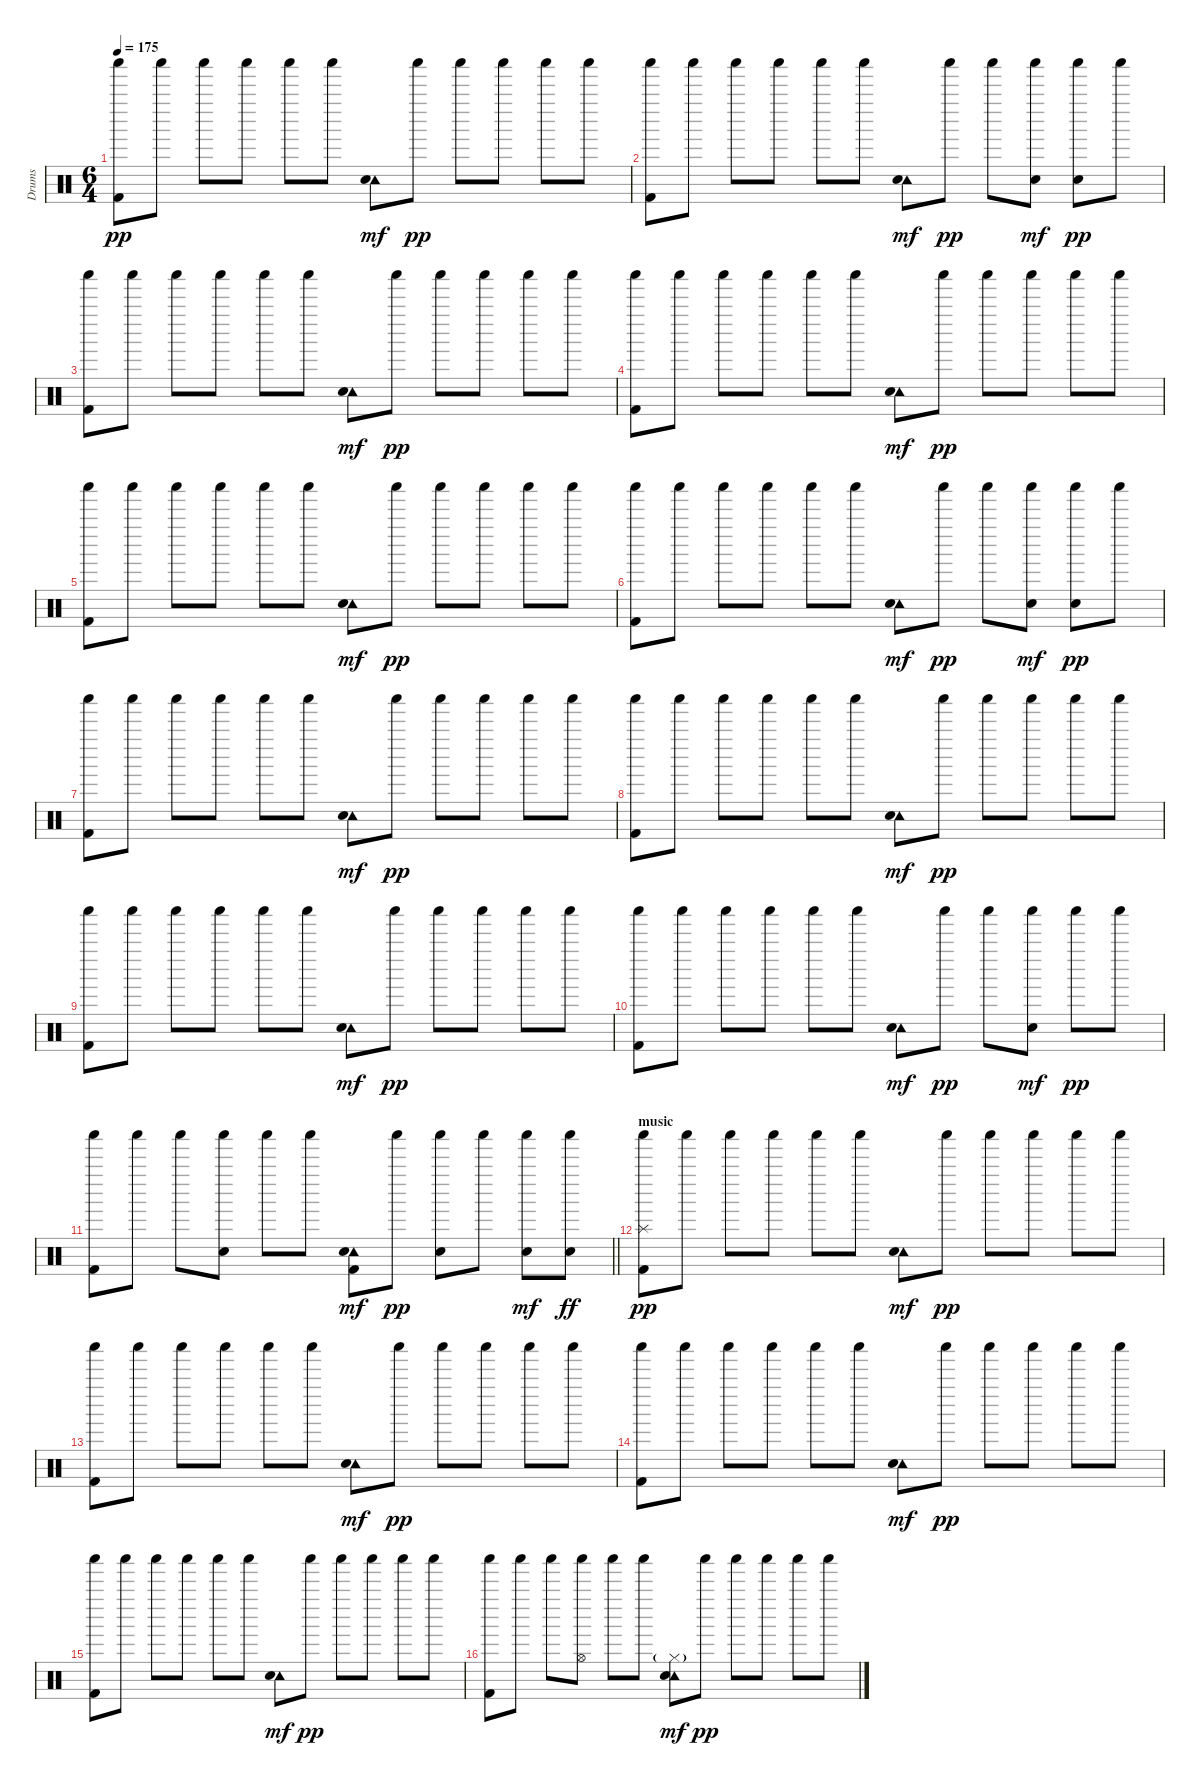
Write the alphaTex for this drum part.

\track ("Drums" "Drums") {instrument percussion}
\staff {score}
\articulation defaults
\ts (6 4)
\tempo 175
\clef neutral
\ks c
("Shaker (hit)" "Kick (hit) 2").8{dy pp} "Shaker (hit)".8 "Shaker (hit)".8 "Shaker (hit)".8 "Shaker (hit)".8 "Shaker (hit)".8 ("Tambourine (hit)" "Snare (hit) 2").8{dy mf} "Shaker (hit)".8{dy pp} "Shaker (hit)".8 "Shaker (hit)".8 "Shaker (hit)".8 "Shaker (hit)".8 |
("Shaker (hit)" "Kick (hit) 2").8 "Shaker (hit)".8 "Shaker (hit)".8 "Shaker (hit)".8 "Shaker (hit)".8 "Shaker (hit)".8 ("Tambourine (hit)" "Snare (hit) 2").8{dy mf} "Shaker (hit)".8{dy pp} "Shaker (hit)".8 ("Shaker (hit)" "Snare (hit) 2").8{dy mf} ("Shaker (hit)" "Snare (hit) 2").8{dy pp} "Shaker (hit)".8 |
("Shaker (hit)" "Kick (hit) 2").8 "Shaker (hit)".8 "Shaker (hit)".8 "Shaker (hit)".8 "Shaker (hit)".8 "Shaker (hit)".8 ("Tambourine (hit)" "Snare (hit) 2").8{dy mf} "Shaker (hit)".8{dy pp} "Shaker (hit)".8 "Shaker (hit)".8 "Shaker (hit)".8 "Shaker (hit)".8 |
("Shaker (hit)" "Kick (hit) 2").8 "Shaker (hit)".8 "Shaker (hit)".8 "Shaker (hit)".8 "Shaker (hit)".8 "Shaker (hit)".8 ("Tambourine (hit)" "Snare (hit) 2").8{dy mf} "Shaker (hit)".8{dy pp} "Shaker (hit)".8 "Shaker (hit)".8 "Shaker (hit)".8 "Shaker (hit)".8 |
("Shaker (hit)" "Kick (hit) 2").8 "Shaker (hit)".8 "Shaker (hit)".8 "Shaker (hit)".8 "Shaker (hit)".8 "Shaker (hit)".8 ("Tambourine (hit)" "Snare (hit) 2").8{dy mf} "Shaker (hit)".8{dy pp} "Shaker (hit)".8 "Shaker (hit)".8 "Shaker (hit)".8 "Shaker (hit)".8 |
("Shaker (hit)" "Kick (hit) 2").8 "Shaker (hit)".8 "Shaker (hit)".8 "Shaker (hit)".8 "Shaker (hit)".8 "Shaker (hit)".8 ("Tambourine (hit)" "Snare (hit) 2").8{dy mf} "Shaker (hit)".8{dy pp} "Shaker (hit)".8 ("Shaker (hit)" "Snare (hit) 2").8{dy mf} ("Shaker (hit)" "Snare (hit) 2").8{dy pp} "Shaker (hit)".8 |
("Shaker (hit)" "Kick (hit) 2").8 "Shaker (hit)".8 "Shaker (hit)".8 "Shaker (hit)".8 "Shaker (hit)".8 "Shaker (hit)".8 ("Tambourine (hit)" "Snare (hit) 2").8{dy mf} "Shaker (hit)".8{dy pp} "Shaker (hit)".8 "Shaker (hit)".8 "Shaker (hit)".8 "Shaker (hit)".8 |
("Shaker (hit)" "Kick (hit) 2").8 "Shaker (hit)".8 "Shaker (hit)".8 "Shaker (hit)".8 "Shaker (hit)".8 "Shaker (hit)".8 ("Tambourine (hit)" "Snare (hit) 2").8{dy mf} "Shaker (hit)".8{dy pp} "Shaker (hit)".8 "Shaker (hit)".8 "Shaker (hit)".8 "Shaker (hit)".8 |
("Shaker (hit)" "Kick (hit) 2").8 "Shaker (hit)".8 "Shaker (hit)".8 "Shaker (hit)".8 "Shaker (hit)".8 "Shaker (hit)".8 ("Tambourine (hit)" "Snare (hit) 2").8{dy mf} "Shaker (hit)".8{dy pp} "Shaker (hit)".8 "Shaker (hit)".8 "Shaker (hit)".8 "Shaker (hit)".8 |
("Shaker (hit)" "Kick (hit) 2").8 "Shaker (hit)".8 "Shaker (hit)".8 "Shaker (hit)".8 "Shaker (hit)".8 "Shaker (hit)".8 ("Tambourine (hit)" "Snare (hit) 2").8{dy mf} "Shaker (hit)".8{dy pp} "Shaker (hit)".8 ("Shaker (hit)" "Snare (hit) 2").8{dy mf} "Shaker (hit)".8{dy pp} "Shaker (hit)".8 |
\barLineRight lightlight
("Shaker (hit)" "Kick (hit) 2").8 "Shaker (hit)".8 "Shaker (hit)".8 ("Shaker (hit)" "Snare (hit) 2").8 "Shaker (hit)".8 "Shaker (hit)".8 ("Tambourine (hit)" "Snare (hit) 2" "Kick (hit) 2").8{dy mf} "Shaker (hit)".8{dy pp} ("Shaker (hit)" "Snare (hit) 2").8 "Shaker (hit)".8 ("Shaker (hit)" "Snare (hit) 2").8{dy mf} ("Shaker (hit)" "Snare (hit) 2").8{dy ff} |
\section ("" "music")
("Splash (hit)" "Shaker (hit)" "Kick (hit) 2").8{dy pp} "Shaker (hit)".8 "Shaker (hit)".8 "Shaker (hit)".8 "Shaker (hit)".8 "Shaker (hit)".8 ("Tambourine (hit)" "Snare (hit) 2").8{dy mf} "Shaker (hit)".8{dy pp} "Shaker (hit)".8 "Shaker (hit)".8 "Shaker (hit)".8 "Shaker (hit)".8 |
("Shaker (hit)" "Kick (hit) 2").8 "Shaker (hit)".8 "Shaker (hit)".8 "Shaker (hit)".8 "Shaker (hit)".8 "Shaker (hit)".8 ("Tambourine (hit)" "Snare (hit) 2").8{dy mf} "Shaker (hit)".8{dy pp} "Shaker (hit)".8 "Shaker (hit)".8 "Shaker (hit)".8 "Shaker (hit)".8 |
("Shaker (hit)" "Kick (hit) 2").8 "Shaker (hit)".8 "Shaker (hit)".8 "Shaker (hit)".8 "Shaker (hit)".8 "Shaker (hit)".8 ("Tambourine (hit)" "Snare (hit) 2").8{dy mf} "Shaker (hit)".8{dy pp} "Shaker (hit)".8 "Shaker (hit)".8 "Shaker (hit)".8 "Shaker (hit)".8 |
("Shaker (hit)" "Kick (hit) 2").8 "Shaker (hit)".8 "Shaker (hit)".8 "Shaker (hit)".8 "Shaker (hit)".8 "Shaker (hit)".8 ("Tambourine (hit)" "Snare (hit) 2").8{dy mf} "Shaker (hit)".8{dy pp} "Shaker (hit)".8 "Shaker (hit)".8 "Shaker (hit)".8 "Shaker (hit)".8 |
("Shaker (hit)" "Kick (hit) 2").8 "Shaker (hit)".8 "Shaker (hit)".8 ("Hi-Hat (open)" "Shaker (hit)").8 "Shaker (hit)".8 "Shaker (hit)".8 ("Hi-Hat (closed)"{g} "Tambourine (hit)" "Snare (hit) 2").8{dy mf} "Shaker (hit)".8{dy pp} "Shaker (hit)".8 "Shaker (hit)".8 "Shaker (hit)".8 "Shaker (hit)".8
